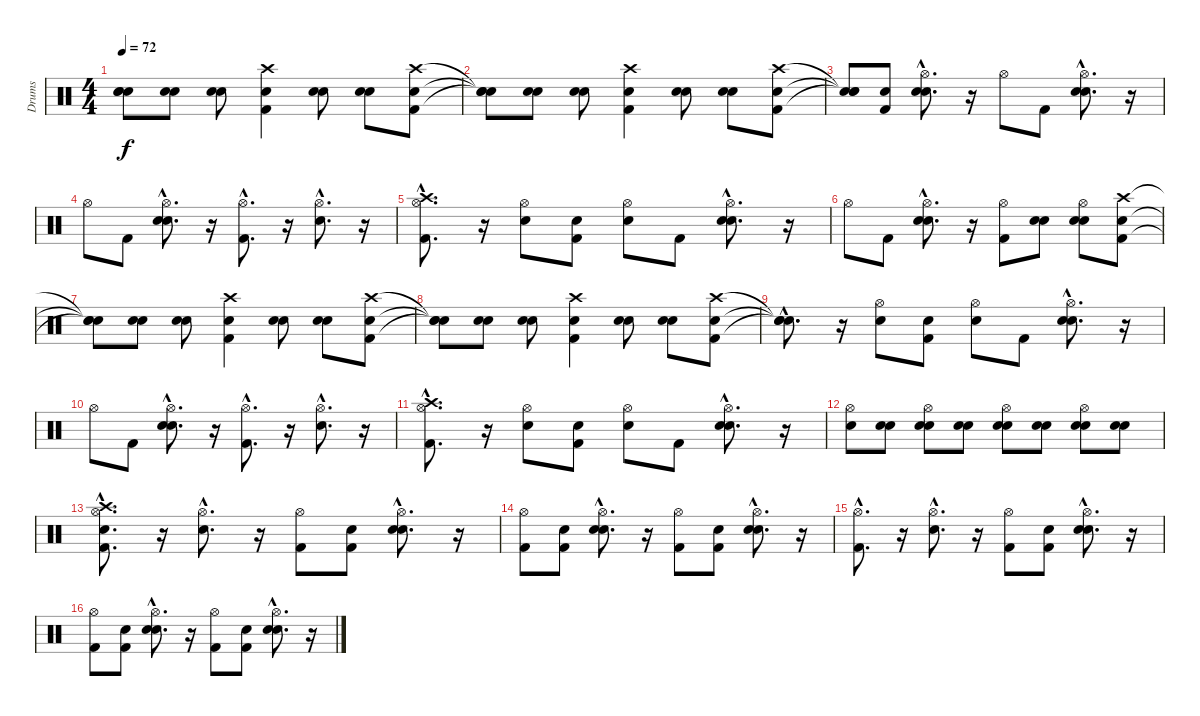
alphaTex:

\track ("Drums" "Drums") {instrument percussion}
\staff {score}
\articulation defaults
\ts (4 4)
\tempo 72
\clef neutral
\ks c
("Snare (hit)"{t} "Snare (hit)"{t} "Snare (hit)"{t}).8{dy f} ("Snare (hit)" "Snare (hit) 2").8 ("Snare (hit)" "Snare (hit) 2").8 ("Snare (hit)" "Kick (hit) 2" "Crash high (hit)").4 ("Snare (hit)" "Snare (hit) 2").8 ("Snare (hit)" "Snare (hit) 2").8 ("Snare (hit)" "Kick (hit) 2" "Crash high (hit)").8 |
("Snare (hit)"{t} "Snare (hit)"{t} "Snare (hit)"{t}).8 ("Snare (hit)" "Snare (hit) 2").8 ("Snare (hit)" "Snare (hit) 2").8 ("Snare (hit)" "Kick (hit) 2" "Crash high (hit)").4 ("Snare (hit)" "Snare (hit) 2").8 ("Snare (hit)" "Snare (hit) 2").8 ("Snare (hit)" "Kick (hit) 2" "Crash high (hit)").8 |
("Snare (hit)"{t} "Snare (hit)"{t} "Snare (hit)"{t}).8 ("Snare (hit)" "Kick (hit) 2").8 ("Snare (hit)"{hac} "Snare (hit) 2"{hac} "Hi-Hat (open)"{hac}).8{d} r.16 "Hi-Hat (open)".8 "Kick (hit) 2".8 ("Snare (hit)"{hac} "Snare (hit) 2"{hac} "Hi-Hat (open)"{hac}).8{d} r.16 |
"Hi-Hat (open)".8 "Kick (hit) 2".8 ("Snare (hit)"{hac} "Snare (hit) 2"{hac} "Hi-Hat (open)"{hac}).8{d} r.16 ("Kick (hit) 2"{hac} "Hi-Hat (open)"{hac}).8{d} r.16 ("Snare (hit) 2"{hac} "Hi-Hat (open)"{hac}).8{d} r.16 |
("Kick (hit) 2"{hac} "Hi-Hat (open)"{hac} "Crash high (hit)"{hac}).8{d} r.16 ("Snare (hit) 2" "Hi-Hat (open)").8 ("Snare (hit)" "Kick (hit) 2").8 ("Snare (hit)" "Hi-Hat (open)").8 "Kick (hit) 2".8 ("Snare (hit)"{hac} "Snare (hit) 2"{hac} "Hi-Hat (open)"{hac}).8{d} r.16 |
"Hi-Hat (open)".8 "Kick (hit) 2".8 ("Snare (hit)"{hac} "Snare (hit) 2"{hac} "Hi-Hat (open)"{hac}).8{d} r.16 ("Kick (hit) 2" "Hi-Hat (open)").8 ("Snare (hit)" "Snare (hit) 2").8 ("Snare (hit)" "Snare (hit) 2" "Hi-Hat (open)").8 ("Snare (hit)" "Kick (hit) 2" "Crash high (hit)").8 |
("Snare (hit)"{t} "Snare (hit)"{t} "Snare (hit)"{t}).8 ("Snare (hit)" "Snare (hit) 2").8 ("Snare (hit)" "Snare (hit) 2").8 ("Snare (hit)" "Kick (hit) 2" "Crash high (hit)").4 ("Snare (hit)" "Snare (hit) 2").8 ("Snare (hit)" "Snare (hit) 2").8 ("Snare (hit)" "Kick (hit) 2" "Crash high (hit)").8 |
("Snare (hit)"{t} "Snare (hit)"{t} "Snare (hit)"{t}).8 ("Snare (hit)" "Snare (hit) 2").8 ("Snare (hit)" "Snare (hit) 2").8 ("Snare (hit)" "Kick (hit) 2" "Crash high (hit)").4 ("Snare (hit)" "Snare (hit) 2").8 ("Snare (hit)" "Snare (hit) 2").8 ("Snare (hit)" "Kick (hit) 2" "Crash high (hit)").8 |
("Snare (hit)"{hac t} "Snare (hit)"{hac t} "Snare (hit)"{hac t}).8{d} r.16 ("Snare (hit) 2" "Hi-Hat (open)").8 ("Snare (hit)" "Kick (hit) 2").8 ("Snare (hit)" "Hi-Hat (open)").8 "Kick (hit) 2".8 ("Snare (hit)"{hac} "Snare (hit) 2"{hac} "Hi-Hat (open)"{hac}).8{d} r.16 |
"Hi-Hat (open)".8 "Kick (hit) 2".8 ("Snare (hit)"{hac} "Snare (hit) 2"{hac} "Hi-Hat (open)"{hac}).8{d} r.16 ("Kick (hit) 2"{hac} "Hi-Hat (open)"{hac}).8{d} r.16 ("Snare (hit) 2"{hac} "Hi-Hat (open)"{hac}).8{d} r.16 |
("Kick (hit) 2"{hac} "Hi-Hat (open)"{hac} "Crash high (hit)"{hac}).8{d} r.16 ("Snare (hit) 2" "Hi-Hat (open)").8 ("Snare (hit)" "Kick (hit) 2").8 ("Snare (hit)" "Hi-Hat (open)").8 "Kick (hit) 2".8 ("Snare (hit)"{hac} "Snare (hit) 2"{hac} "Hi-Hat (open)"{hac}).8{d} r.16 |
("Snare (hit) 2" "Hi-Hat (open)").8 ("Snare (hit)" "Snare (hit) 2").8 ("Snare (hit)" "Snare (hit) 2" "Hi-Hat (open)").8 ("Snare (hit)" "Snare (hit) 2").8 ("Snare (hit)" "Snare (hit) 2" "Hi-Hat (open)").8 ("Snare (hit)" "Snare (hit) 2").8 ("Snare (hit)" "Snare (hit) 2" "Hi-Hat (open)").8 ("Snare (hit)" "Snare (hit) 2").8 |
("Snare (hit)"{hac} "Kick (hit) 2"{hac} "Hi-Hat (open)"{hac} "Crash high (hit)"{hac}).8{d} r.16 ("Snare (hit) 2"{hac} "Hi-Hat (open)"{hac}).8{d} r.16 ("Kick (hit) 2" "Hi-Hat (open)").8 ("Snare (hit)" "Kick (hit) 2").8 ("Snare (hit)"{hac} "Snare (hit) 2"{hac} "Hi-Hat (open)"{hac}).8{d} r.16 |
("Kick (hit) 2" "Hi-Hat (open)").8 ("Snare (hit)" "Kick (hit) 2").8 ("Snare (hit)"{hac} "Snare (hit) 2"{hac} "Hi-Hat (open)"{hac}).8{d} r.16 ("Kick (hit) 2" "Hi-Hat (open)").8 ("Snare (hit)" "Kick (hit) 2").8 ("Snare (hit)"{hac} "Snare (hit) 2"{hac} "Hi-Hat (open)"{hac}).8{d} r.16 |
("Kick (hit) 2"{hac} "Hi-Hat (open)"{hac}).8{d} r.16 ("Snare (hit) 2"{hac} "Hi-Hat (open)"{hac}).8{d} r.16 ("Kick (hit) 2" "Hi-Hat (open)").8 ("Snare (hit)" "Kick (hit) 2").8 ("Snare (hit)"{hac} "Snare (hit) 2"{hac} "Hi-Hat (open)"{hac}).8{d} r.16 |
("Kick (hit) 2" "Hi-Hat (open)").8 ("Snare (hit)" "Kick (hit) 2").8 ("Snare (hit)"{hac} "Snare (hit) 2"{hac} "Hi-Hat (open)"{hac}).8{d} r.16 ("Kick (hit) 2" "Hi-Hat (open)").8 ("Snare (hit)" "Kick (hit) 2").8 ("Snare (hit)"{hac} "Snare (hit) 2"{hac} "Hi-Hat (open)"{hac}).8{d} r.16
